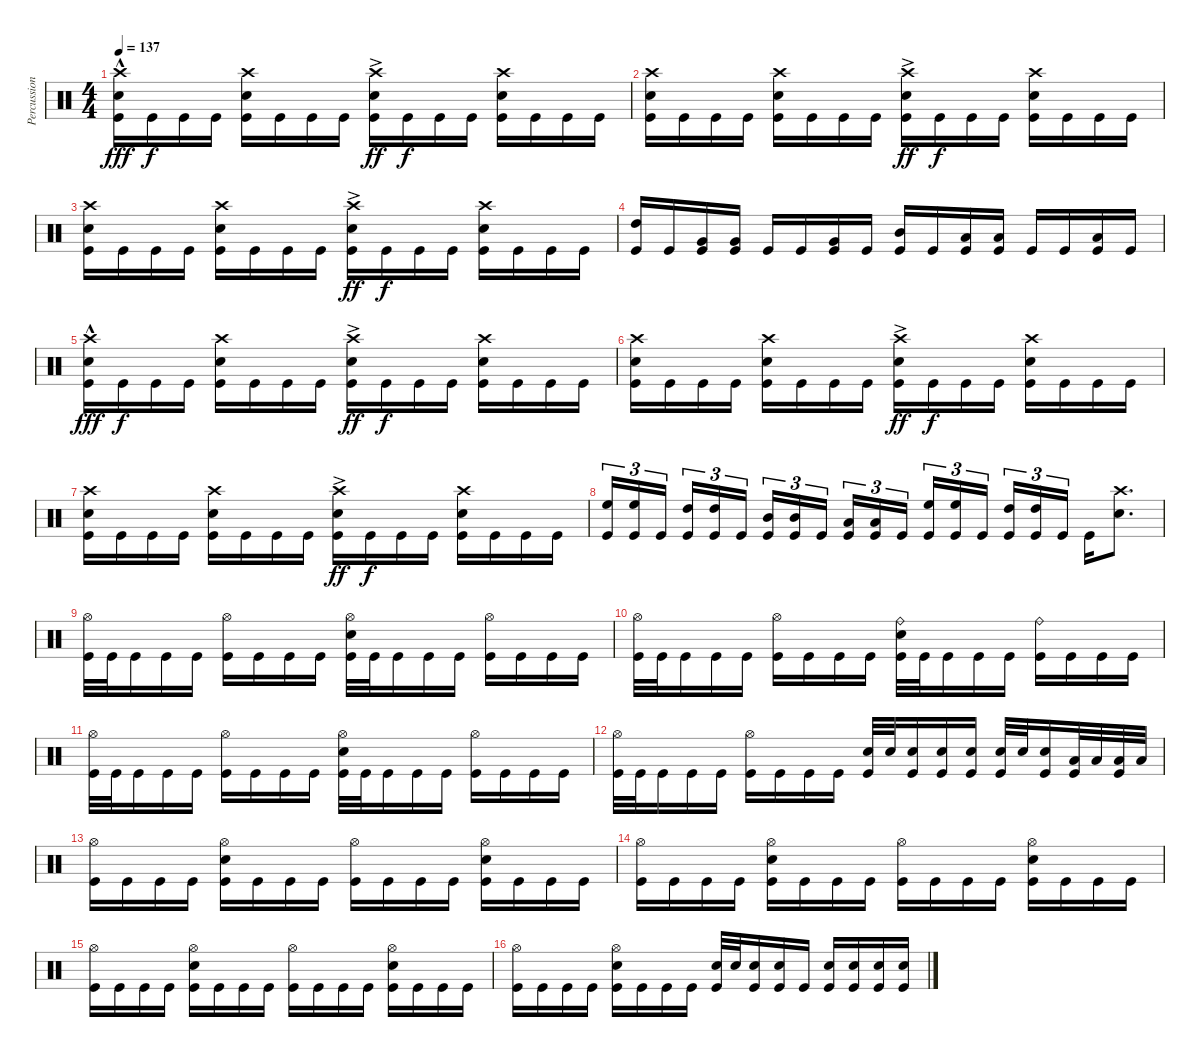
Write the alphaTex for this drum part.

\track ("Percussion" "Percussion") {instrument percussion}
\staff {score}
\articulation defaults
\ts (4 4)
\tempo 137
\clef neutral
\ks c
("Crash high (hit)"{hac} "Snare (hit) 2" "Kick (hit)").16{dy fff} "Kick (hit)".16{dy f} "Kick (hit)".16 "Kick (hit)".16 ("Crash high (hit)" "Snare (hit) 2" "Kick (hit)").16 "Kick (hit)".16 "Kick (hit)".16 "Kick (hit)".16 ("Crash high (hit)" "Snare (hit) 2"{ac} "Kick (hit)").16{dy ff} "Kick (hit)".16{dy f} "Kick (hit)".16 "Kick (hit)".16 ("Crash high (hit)" "Snare (hit) 2" "Kick (hit)").16 "Kick (hit)".16 "Kick (hit)".16 "Kick (hit)".16 |
("Crash high (hit)" "Snare (hit) 2" "Kick (hit)").16 "Kick (hit)".16 "Kick (hit)".16 "Kick (hit)".16 ("Crash high (hit)" "Snare (hit) 2" "Kick (hit)").16 "Kick (hit)".16 "Kick (hit)".16 "Kick (hit)".16 ("Crash high (hit)" "Snare (hit) 2"{ac} "Kick (hit)").16{dy ff} "Kick (hit)".16{dy f} "Kick (hit)".16 "Kick (hit)".16 ("Crash high (hit)" "Snare (hit) 2" "Kick (hit)").16 "Kick (hit)".16 "Kick (hit)".16 "Kick (hit)".16 |
("Crash high (hit)" "Snare (hit) 2" "Kick (hit)").16 "Kick (hit)".16 "Kick (hit)".16 "Kick (hit)".16 ("Crash high (hit)" "Snare (hit) 2" "Kick (hit)").16 "Kick (hit)".16 "Kick (hit)".16 "Kick (hit)".16 ("Crash high (hit)" "Snare (hit) 2"{ac} "Kick (hit)").16{dy ff} "Kick (hit)".16{dy f} "Kick (hit)".16 "Kick (hit)".16 ("Crash high (hit)" "Snare (hit) 2" "Kick (hit)").16 "Kick (hit)".16 "Kick (hit)".16 "Kick (hit)".16 |
("High Tom (hit)" "Kick (hit)").16 "Kick (hit)".16 ("Very Low Tom (hit)" "Kick (hit)").16 ("Very Low Tom (hit)" "Kick (hit)").16 "Kick (hit)".16 "Kick (hit)".16 ("Very Low Tom (hit)" "Kick (hit)").16 "Kick (hit)".16 ("Mid Tom (hit)" "Kick (hit)").16 "Kick (hit)".16 ("Low Floor Tom (hit)" "Kick (hit)").16 ("Low Floor Tom (hit)" "Kick (hit)").16 "Kick (hit)".16 "Kick (hit)".16 ("Low Floor Tom (hit)" "Kick (hit)").16 "Kick (hit)".16 |
("Crash high (hit)"{hac} "Snare (hit) 2" "Kick (hit)").16{dy fff} "Kick (hit)".16{dy f} "Kick (hit)".16 "Kick (hit)".16 ("Crash high (hit)" "Snare (hit) 2" "Kick (hit)").16 "Kick (hit)".16 "Kick (hit)".16 "Kick (hit)".16 ("Crash high (hit)" "Snare (hit) 2"{ac} "Kick (hit)").16{dy ff} "Kick (hit)".16{dy f} "Kick (hit)".16 "Kick (hit)".16 ("Crash high (hit)" "Snare (hit) 2" "Kick (hit)").16 "Kick (hit)".16 "Kick (hit)".16 "Kick (hit)".16 |
("Crash high (hit)" "Snare (hit) 2" "Kick (hit)").16 "Kick (hit)".16 "Kick (hit)".16 "Kick (hit)".16 ("Crash high (hit)" "Snare (hit) 2" "Kick (hit)").16 "Kick (hit)".16 "Kick (hit)".16 "Kick (hit)".16 ("Crash high (hit)" "Snare (hit) 2"{ac} "Kick (hit)").16{dy ff} "Kick (hit)".16{dy f} "Kick (hit)".16 "Kick (hit)".16 ("Crash high (hit)" "Snare (hit) 2" "Kick (hit)").16 "Kick (hit)".16 "Kick (hit)".16 "Kick (hit)".16 |
("Crash high (hit)" "Snare (hit) 2" "Kick (hit)").16 "Kick (hit)".16 "Kick (hit)".16 "Kick (hit)".16 ("Crash high (hit)" "Snare (hit) 2" "Kick (hit)").16 "Kick (hit)".16 "Kick (hit)".16 "Kick (hit)".16 ("Crash high (hit)" "Snare (hit) 2"{ac} "Kick (hit)").16{dy ff} "Kick (hit)".16{dy f} "Kick (hit)".16 "Kick (hit)".16 ("Crash high (hit)" "Snare (hit) 2" "Kick (hit)").16 "Kick (hit)".16 "Kick (hit)".16 "Kick (hit)".16 |
("High Floor Tom (hit)" "Kick (hit)").16{tu (3 2)} ("High Floor Tom (hit)" "Kick (hit)").16{tu (3 2)} "Kick (hit)".16{tu (3 2) beam splitsecondary} ("High Tom (hit)" "Kick (hit)").16{tu (3 2)} ("High Tom (hit)" "Kick (hit)").16{tu (3 2)} "Kick (hit)".16{tu (3 2)} ("Mid Tom (hit)" "Kick (hit)").16{tu (3 2)} ("Mid Tom (hit)" "Kick (hit)").16{tu (3 2)} "Kick (hit)".16{tu (3 2) beam splitsecondary} ("Low Tom (hit)" "Kick (hit)").16{tu (3 2)} ("Low Tom (hit)" "Kick (hit)").16{tu (3 2)} "Kick (hit)".16{tu (3 2)} ("High Floor Tom (hit)" "Kick (hit)").16{tu (3 2)} ("High Floor Tom (hit)" "Kick (hit)").16{tu (3 2)} "Kick (hit)".16{tu (3 2) beam splitsecondary} ("High Tom (hit)" "Kick (hit)").16{tu (3 2)} ("High Tom (hit)" "Kick (hit)").16{tu (3 2)} "Kick (hit)".16{tu (3 2)} "Kick (hit)".16 ("Crash high (hit)" "Snare (hit) 2").8{d} |
("Hi-Hat (open)" "Kick (hit)").32 "Kick (hit)".32 "Kick (hit)".16 "Kick (hit)".16 "Kick (hit)".16 ("Hi-Hat (open)" "Kick (hit)").16 "Kick (hit)".16 "Kick (hit)".16 "Kick (hit)".16 ("Hi-Hat (open)" "Snare (hit) 2" "Kick (hit)").32 "Kick (hit)".32 "Kick (hit)".16 "Kick (hit)".16 "Kick (hit)".16 ("Hi-Hat (open)" "Kick (hit)").16 "Kick (hit)".16 "Kick (hit)".16 "Kick (hit)".16 |
("Hi-Hat (open)" "Kick (hit)").32 "Kick (hit)".32 "Kick (hit)".16 "Kick (hit)".16 "Kick (hit)".16 ("Hi-Hat (open)" "Kick (hit)").16 "Kick (hit)".16 "Kick (hit)".16 "Kick (hit)".16 ("Ride (bell)" "Snare (hit) 2" "Kick (hit)").32 "Kick (hit)".32 "Kick (hit)".16 "Kick (hit)".16 "Kick (hit)".16 ("Ride (bell)" "Kick (hit)").16 "Kick (hit)".16 "Kick (hit)".16 "Kick (hit)".16 |
("Hi-Hat (open)" "Kick (hit)").32 "Kick (hit)".32 "Kick (hit)".16 "Kick (hit)".16 "Kick (hit)".16 ("Hi-Hat (open)" "Kick (hit)").16 "Kick (hit)".16 "Kick (hit)".16 "Kick (hit)".16 ("Hi-Hat (open)" "Snare (hit) 2" "Kick (hit)").32 "Kick (hit)".32 "Kick (hit)".16 "Kick (hit)".16 "Kick (hit)".16 ("Hi-Hat (open)" "Kick (hit)").16 "Kick (hit)".16 "Kick (hit)".16 "Kick (hit)".16 |
("Hi-Hat (open)" "Kick (hit)").32 "Kick (hit)".32 "Kick (hit)".16 "Kick (hit)".16 "Kick (hit)".16 ("Hi-Hat (open)" "Kick (hit)").16 "Kick (hit)".16 "Kick (hit)".16 "Kick (hit)".16 ("Snare (hit) 2" "Kick (hit)").32 "Snare (hit) 2".32 ("Snare (hit) 2" "Kick (hit)").16 ("Snare (hit) 2" "Kick (hit)").16 ("Snare (hit) 2" "Kick (hit)").16 ("Snare (hit) 2" "Kick (hit)").32 "Snare (hit) 2".32 ("Snare (hit) 2" "Kick (hit)").16 ("Low Floor Tom (hit)" "Kick (hit)").32 "Low Floor Tom (hit)".32 ("Low Floor Tom (hit)" "Kick (hit)").32 "Low Floor Tom (hit)".32 |
("Hi-Hat (open)" "Kick (hit)").16 "Kick (hit)".16 "Kick (hit)".16 "Kick (hit)".16 ("Hi-Hat (open)" "Snare (hit) 2" "Kick (hit)").16 "Kick (hit)".16 "Kick (hit)".16 "Kick (hit)".16 ("Hi-Hat (open)" "Kick (hit)").16 "Kick (hit)".16 "Kick (hit)".16 "Kick (hit)".16 ("Hi-Hat (open)" "Snare (hit) 2" "Kick (hit)").16 "Kick (hit)".16 "Kick (hit)".16 "Kick (hit)".16 |
("Hi-Hat (open)" "Kick (hit)").16 "Kick (hit)".16 "Kick (hit)".16 "Kick (hit)".16 ("Hi-Hat (open)" "Snare (hit) 2" "Kick (hit)").16 "Kick (hit)".16 "Kick (hit)".16 "Kick (hit)".16 ("Hi-Hat (open)" "Kick (hit)").16 "Kick (hit)".16 "Kick (hit)".16 "Kick (hit)".16 ("Hi-Hat (open)" "Snare (hit) 2" "Kick (hit)").16 "Kick (hit)".16 "Kick (hit)".16 "Kick (hit)".16 |
("Hi-Hat (open)" "Kick (hit)").16 "Kick (hit)".16 "Kick (hit)".16 "Kick (hit)".16 ("Hi-Hat (open)" "Snare (hit) 2" "Kick (hit)").16 "Kick (hit)".16 "Kick (hit)".16 "Kick (hit)".16 ("Hi-Hat (open)" "Kick (hit)").16 "Kick (hit)".16 "Kick (hit)".16 "Kick (hit)".16 ("Hi-Hat (open)" "Snare (hit) 2" "Kick (hit)").16 "Kick (hit)".16 "Kick (hit)".16 "Kick (hit)".16 |
("Hi-Hat (open)" "Kick (hit)").16 "Kick (hit)".16 "Kick (hit)".16 "Kick (hit)".16 ("Hi-Hat (open)" "Snare (hit) 2" "Kick (hit)").16 "Kick (hit)".16 "Kick (hit)".16 "Kick (hit)".16 ("Snare (hit) 2" "Kick (hit)").32 "Snare (hit) 2".32 ("Snare (hit) 2" "Kick (hit)").16 ("Snare (hit) 2" "Kick (hit)").16 "Kick (hit)".16 ("Snare (hit) 2" "Kick (hit)").16 ("Snare (hit) 2" "Kick (hit)").16 ("Snare (hit) 2" "Kick (hit)").16 ("Snare (hit) 2" "Kick (hit)").16
